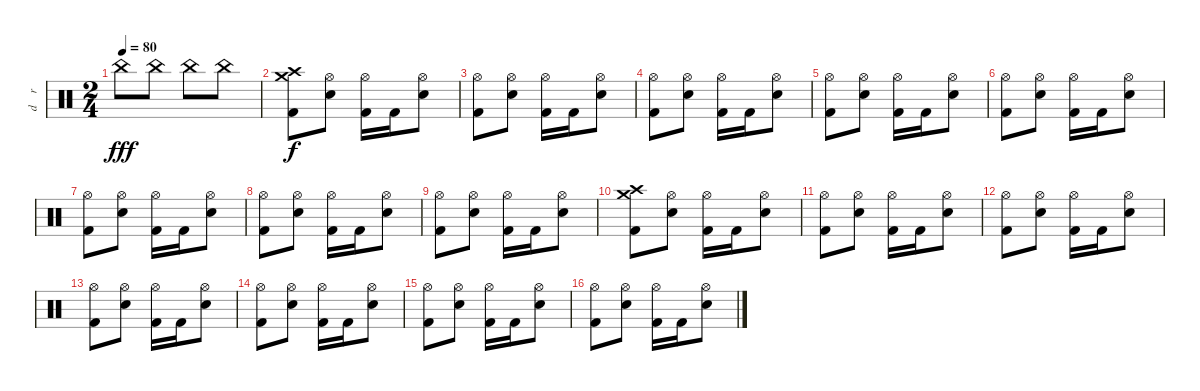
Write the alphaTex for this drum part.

\track ("d    r     u    m    s" "d    r    ") {instrument percussion}
\staff {score}
\articulation defaults
\ts (2 4)
\tempo 80
\clef neutral
\ks c "China (hit)".8{dy fff} "China (hit)".8 "China (hit)".8 "China (hit)".8
|
("Crash high (hit)" "Crash medium (hit)" "Kick (hit) 2").8{dy f} ("Hi-Hat (open)" "Electric Snare (hit)").8 ("Hi-Hat (open)" "Kick (hit) 2").16 "Kick (hit) 2".16 ("Hi-Hat (open)" "Electric Snare (hit)").8 |
("Hi-Hat (open)" "Kick (hit) 2").8 ("Hi-Hat (open)" "Electric Snare (hit)").8 ("Hi-Hat (open)" "Kick (hit) 2").16 "Kick (hit) 2".16 ("Hi-Hat (open)" "Electric Snare (hit)").8 |
("Hi-Hat (open)" "Kick (hit) 2").8 ("Hi-Hat (open)" "Electric Snare (hit)").8 ("Hi-Hat (open)" "Kick (hit) 2").16 "Kick (hit) 2".16 ("Hi-Hat (open)" "Electric Snare (hit)").8 |
("Hi-Hat (open)" "Kick (hit) 2").8 ("Hi-Hat (open)" "Electric Snare (hit)").8 ("Hi-Hat (open)" "Kick (hit) 2").16 "Kick (hit) 2".16 ("Hi-Hat (open)" "Electric Snare (hit)").8 |
("Hi-Hat (open)" "Kick (hit) 2").8 ("Hi-Hat (open)" "Electric Snare (hit)").8 ("Hi-Hat (open)" "Kick (hit) 2").16 "Kick (hit) 2".16 ("Hi-Hat (open)" "Electric Snare (hit)").8 |
("Hi-Hat (open)" "Kick (hit) 2").8 ("Hi-Hat (open)" "Electric Snare (hit)").8 ("Hi-Hat (open)" "Kick (hit) 2").16 "Kick (hit) 2".16 ("Hi-Hat (open)" "Electric Snare (hit)").8 |
("Hi-Hat (open)" "Kick (hit) 2").8 ("Hi-Hat (open)" "Electric Snare (hit)").8 ("Hi-Hat (open)" "Kick (hit) 2").16 "Kick (hit) 2".16 ("Hi-Hat (open)" "Electric Snare (hit)").8 |
("Hi-Hat (open)" "Kick (hit) 2").8 ("Hi-Hat (open)" "Electric Snare (hit)").8 ("Hi-Hat (open)" "Kick (hit) 2").16 "Kick (hit) 2".16 ("Hi-Hat (open)" "Electric Snare (hit)").8 |
("Crash high (hit)" "Crash medium (hit)" "Kick (hit) 2").8 ("Hi-Hat (open)" "Electric Snare (hit)").8 ("Hi-Hat (open)" "Kick (hit) 2").16 "Kick (hit) 2".16 ("Hi-Hat (open)" "Electric Snare (hit)").8 |
("Hi-Hat (open)" "Kick (hit) 2").8 ("Hi-Hat (open)" "Electric Snare (hit)").8 ("Hi-Hat (open)" "Kick (hit) 2").16 "Kick (hit) 2".16 ("Hi-Hat (open)" "Electric Snare (hit)").8 |
("Hi-Hat (open)" "Kick (hit) 2").8 ("Hi-Hat (open)" "Electric Snare (hit)").8 ("Hi-Hat (open)" "Kick (hit) 2").16 "Kick (hit) 2".16 ("Hi-Hat (open)" "Electric Snare (hit)").8 |
("Hi-Hat (open)" "Kick (hit) 2").8 ("Hi-Hat (open)" "Electric Snare (hit)").8 ("Hi-Hat (open)" "Kick (hit) 2").16 "Kick (hit) 2".16 ("Hi-Hat (open)" "Electric Snare (hit)").8 |
("Hi-Hat (open)" "Kick (hit) 2").8 ("Hi-Hat (open)" "Electric Snare (hit)").8 ("Hi-Hat (open)" "Kick (hit) 2").16 "Kick (hit) 2".16 ("Hi-Hat (open)" "Electric Snare (hit)").8 |
("Hi-Hat (open)" "Kick (hit) 2").8 ("Hi-Hat (open)" "Electric Snare (hit)").8 ("Hi-Hat (open)" "Kick (hit) 2").16 "Kick (hit) 2".16 ("Hi-Hat (open)" "Electric Snare (hit)").8 |
("Hi-Hat (open)" "Kick (hit) 2").8 ("Hi-Hat (open)" "Electric Snare (hit)").8 ("Hi-Hat (open)" "Kick (hit) 2").16 "Kick (hit) 2".16 ("Hi-Hat (open)" "Electric Snare (hit)").8
